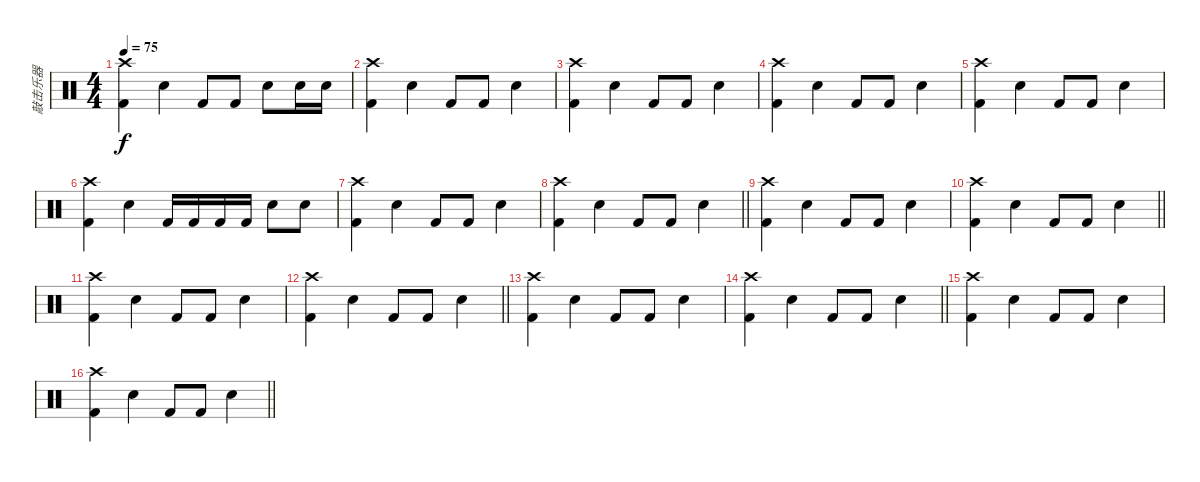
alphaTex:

\track ("敲击乐器" "敲击乐器") {instrument percussion}
\staff {score}
\articulation defaults
\ts (4 4)
\tempo 75
\clef neutral
\ks c
("Crash high (hit)" "Kick (hit) 2").4{dy f} "Snare (hit) 2".4 "Kick (hit) 2".8 "Kick (hit) 2".8 "Snare (hit) 2".8 "Snare (hit) 2".16 "Snare (hit) 2".16 |
("Crash high (hit)" "Kick (hit) 2").4 "Snare (hit) 2".4 "Kick (hit) 2".8 "Kick (hit) 2".8 "Snare (hit) 2".4 |
("Crash high (hit)" "Kick (hit) 2").4 "Snare (hit) 2".4 "Kick (hit) 2".8 "Kick (hit) 2".8 "Snare (hit) 2".4 |
("Crash high (hit)" "Kick (hit) 2").4 "Snare (hit) 2".4 "Kick (hit) 2".8 "Kick (hit) 2".8 "Snare (hit) 2".4 |
("Crash high (hit)" "Kick (hit) 2").4 "Snare (hit) 2".4 "Kick (hit) 2".8 "Kick (hit) 2".8 "Snare (hit) 2".4 |
("Crash high (hit)" "Kick (hit) 2").4 "Snare (hit) 2".4 "Kick (hit) 2".16 "Kick (hit) 2".16 "Kick (hit) 2".16 "Kick (hit) 2".16 "Snare (hit) 2".8 "Snare (hit) 2".8 |
("Crash high (hit)" "Kick (hit) 2").4 "Snare (hit) 2".4 "Kick (hit) 2".8 "Kick (hit) 2".8 "Snare (hit) 2".4 |
\barLineRight lightlight
("Crash high (hit)" "Kick (hit) 2").4 "Snare (hit) 2".4 "Kick (hit) 2".8 "Kick (hit) 2".8 "Snare (hit) 2".4 |
("Crash high (hit)" "Kick (hit) 2").4 "Snare (hit) 2".4 "Kick (hit) 2".8 "Kick (hit) 2".8 "Snare (hit) 2".4 |
\barLineRight lightlight
("Crash high (hit)" "Kick (hit) 2").4 "Snare (hit) 2".4 "Kick (hit) 2".8 "Kick (hit) 2".8 "Snare (hit) 2".4 |
("Crash high (hit)" "Kick (hit) 2").4 "Snare (hit) 2".4 "Kick (hit) 2".8 "Kick (hit) 2".8 "Snare (hit) 2".4 |
\barLineRight lightlight
("Crash high (hit)" "Kick (hit) 2").4 "Snare (hit) 2".4 "Kick (hit) 2".8 "Kick (hit) 2".8 "Snare (hit) 2".4 |
("Crash high (hit)" "Kick (hit) 2").4 "Snare (hit) 2".4 "Kick (hit) 2".8 "Kick (hit) 2".8 "Snare (hit) 2".4 |
\barLineRight lightlight
("Crash high (hit)" "Kick (hit) 2").4 "Snare (hit) 2".4 "Kick (hit) 2".8 "Kick (hit) 2".8 "Snare (hit) 2".4 |
("Crash high (hit)" "Kick (hit) 2").4 "Snare (hit) 2".4 "Kick (hit) 2".8 "Kick (hit) 2".8 "Snare (hit) 2".4 |
\barLineRight lightlight
("Crash high (hit)" "Kick (hit) 2").4 "Snare (hit) 2".4 "Kick (hit) 2".8 "Kick (hit) 2".8 "Snare (hit) 2".4
